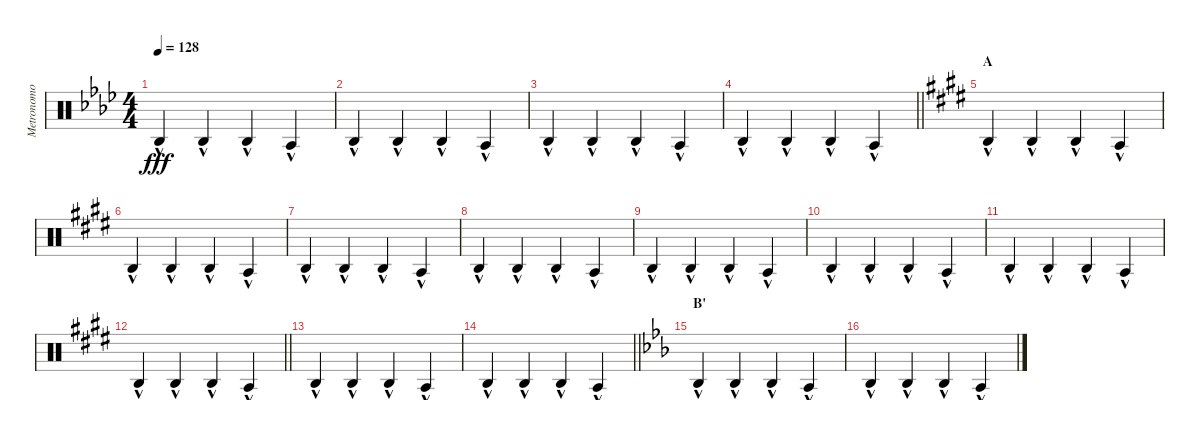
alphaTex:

\track ("Metronomo" "Metronomo") {mute instrument percussion}
\staff {score}
\articulation defaults
\ts (4 4)
\tempo 128
\clef neutral
\ks fminor "Agogo high (hit)"{hac}.4{dy fff} "Agogo high (hit)"{hac}.4 "Agogo high (hit)"{hac}.4 "Agogo tow (hit)"{hac}.4
|
"Agogo high (hit)"{hac}.4 "Agogo high (hit)"{hac}.4 "Agogo high (hit)"{hac}.4 "Agogo tow (hit)"{hac}.4 |
"Agogo high (hit)"{hac}.4 "Agogo high (hit)"{hac}.4 "Agogo high (hit)"{hac}.4 "Agogo tow (hit)"{hac}.4 |
\barLineRight lightlight "Agogo high (hit)"{hac}.4 "Agogo high (hit)"{hac}.4 "Agogo high (hit)"{hac}.4 "Agogo tow (hit)"{hac}.4
|
\section ("" "A")
\ks e "Agogo high (hit)"{hac}.4 "Agogo high (hit)"{hac}.4 "Agogo high (hit)"{hac}.4 "Agogo tow (hit)"{hac}.4
|
"Agogo high (hit)"{hac}.4 "Agogo high (hit)"{hac}.4 "Agogo high (hit)"{hac}.4 "Agogo tow (hit)"{hac}.4 |
"Agogo high (hit)"{hac}.4 "Agogo high (hit)"{hac}.4 "Agogo high (hit)"{hac}.4 "Agogo tow (hit)"{hac}.4 |
"Agogo high (hit)"{hac}.4 "Agogo high (hit)"{hac}.4 "Agogo high (hit)"{hac}.4 "Agogo tow (hit)"{hac}.4 |
"Agogo high (hit)"{hac}.4 "Agogo high (hit)"{hac}.4 "Agogo high (hit)"{hac}.4 "Agogo tow (hit)"{hac}.4 |
"Agogo high (hit)"{hac}.4 "Agogo high (hit)"{hac}.4 "Agogo high (hit)"{hac}.4 "Agogo tow (hit)"{hac}.4 |
"Agogo high (hit)"{hac}.4 "Agogo high (hit)"{hac}.4 "Agogo high (hit)"{hac}.4 "Agogo tow (hit)"{hac}.4 |
\barLineRight lightlight "Agogo high (hit)"{hac}.4 "Agogo high (hit)"{hac}.4 "Agogo high (hit)"{hac}.4 "Agogo tow (hit)"{hac}.4
|
\section ("" "")
"Agogo high (hit)"{hac}.4 "Agogo high (hit)"{hac}.4 "Agogo high (hit)"{hac}.4 "Agogo tow (hit)"{hac}.4 |
\barLineRight lightlight "Agogo high (hit)"{hac}.4 "Agogo high (hit)"{hac}.4 "Agogo high (hit)"{hac}.4 "Agogo tow (hit)"{hac}.4
|
\section ("" "B'")
\ks eb "Agogo high (hit)"{hac}.4 "Agogo high (hit)"{hac}.4 "Agogo high (hit)"{hac}.4 "Agogo tow (hit)"{hac}.4
|
"Agogo high (hit)"{hac}.4 "Agogo high (hit)"{hac}.4 "Agogo high (hit)"{hac}.4 "Agogo tow (hit)"{hac}.4
